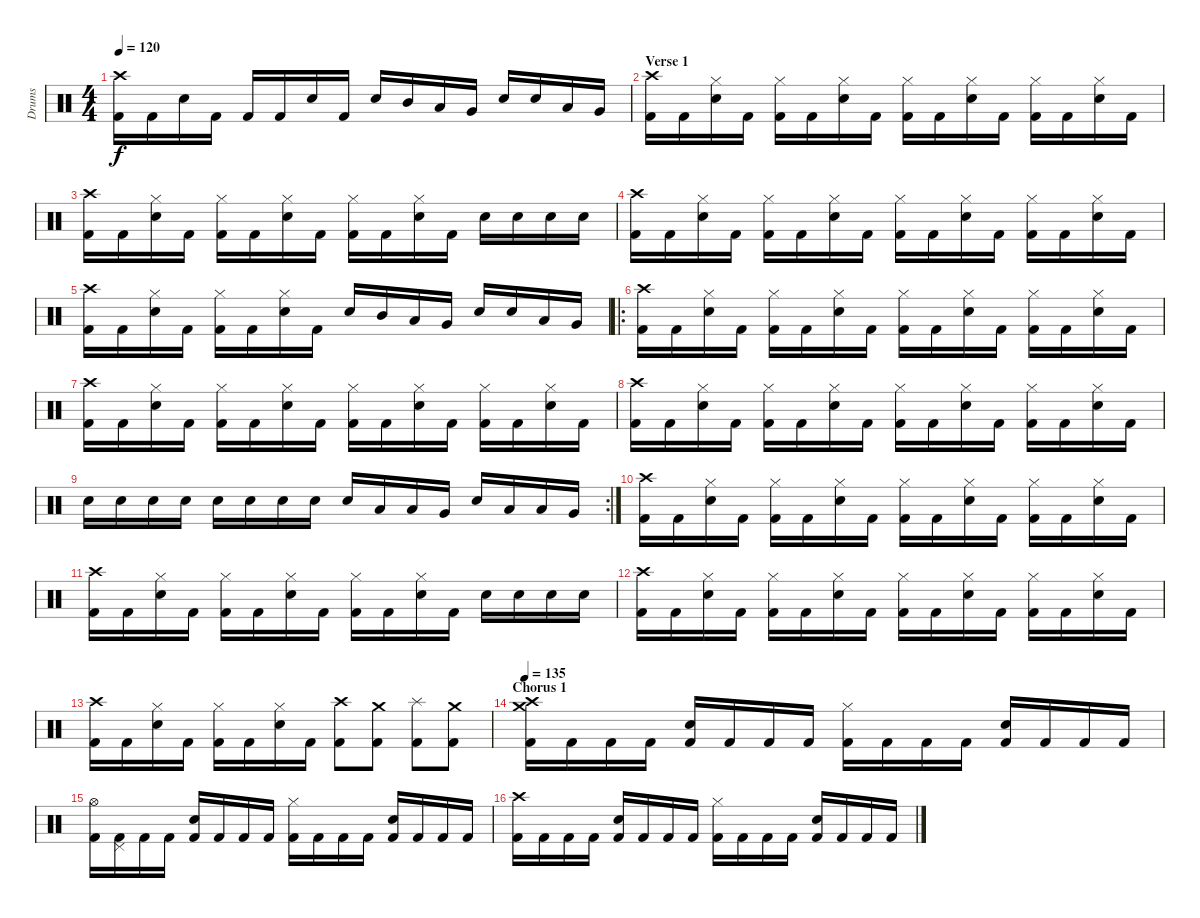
\track ("Drums" "Drums") {instrument percussion}
\staff {score}
\articulation defaults
\ts (4 4)
\tempo 120
\clef neutral
\ks c
("Kick (hit) 2" "Crash high (hit)").16{dy f} "Kick (hit) 2".16 "Electric Snare (hit)".16 "Kick (hit) 2".16 "Kick (hit) 2".16 "Kick (hit) 2".16 "Electric Snare (hit)".16 "Kick (hit) 2".16 "Electric Snare (hit)".16 "Mid Tom (hit)".16 "Low Tom (hit)".16 "Very Low Tom (hit)".16 "Electric Snare (hit)".16 "Electric Snare (hit)".16 "Low Tom (hit)".16 "Very Low Tom (hit)".16 |
\section ("" "Verse 1")
("Kick (hit) 2" "Crash high (hit)").16 "Kick (hit) 2".16 ("Electric Snare (hit)" "Hi-Hat (closed)").16 "Kick (hit) 2".16 ("Kick (hit) 2" "Hi-Hat (closed)").16 "Kick (hit) 2".16 ("Electric Snare (hit)" "Hi-Hat (closed)").16 "Kick (hit) 2".16 ("Kick (hit) 2" "Hi-Hat (closed)").16 "Kick (hit) 2".16 ("Electric Snare (hit)" "Hi-Hat (closed)").16 "Kick (hit) 2".16 ("Kick (hit) 2" "Hi-Hat (closed)").16 "Kick (hit) 2".16 ("Electric Snare (hit)" "Hi-Hat (closed)").16 "Kick (hit) 2".16 |
("Kick (hit) 2" "Crash high (hit)").16 "Kick (hit) 2".16 ("Electric Snare (hit)" "Hi-Hat (closed)").16 "Kick (hit) 2".16 ("Kick (hit) 2" "Hi-Hat (closed)").16 "Kick (hit) 2".16 ("Electric Snare (hit)" "Hi-Hat (closed)").16 "Kick (hit) 2".16 ("Kick (hit) 2" "Hi-Hat (closed)").16 "Kick (hit) 2".16 ("Electric Snare (hit)" "Hi-Hat (closed)").16 "Kick (hit) 2".16 "Electric Snare (hit)".16 "Electric Snare (hit)".16 "Electric Snare (hit)".16 "Electric Snare (hit)".16 |
("Kick (hit) 2" "Crash high (hit)").16 "Kick (hit) 2".16 ("Electric Snare (hit)" "Hi-Hat (closed)").16 "Kick (hit) 2".16 ("Kick (hit) 2" "Hi-Hat (closed)").16 "Kick (hit) 2".16 ("Electric Snare (hit)" "Hi-Hat (closed)").16 "Kick (hit) 2".16 ("Kick (hit) 2" "Hi-Hat (closed)").16 "Kick (hit) 2".16 ("Electric Snare (hit)" "Hi-Hat (closed)").16 "Kick (hit) 2".16 ("Kick (hit) 2" "Hi-Hat (closed)").16 "Kick (hit) 2".16 ("Electric Snare (hit)" "Hi-Hat (closed)").16 "Kick (hit) 2".16 |
("Kick (hit) 2" "Crash high (hit)").16 "Kick (hit) 2".16 ("Electric Snare (hit)" "Hi-Hat (closed)").16 "Kick (hit) 2".16 ("Kick (hit) 2" "Hi-Hat (closed)").16 "Kick (hit) 2".16 ("Electric Snare (hit)" "Hi-Hat (closed)").16 "Kick (hit) 2".16 "Electric Snare (hit)".16 "Mid Tom (hit)".16 "Low Tom (hit)".16 "Very Low Tom (hit)".16 "Electric Snare (hit)".16 "Electric Snare (hit)".16 "Low Tom (hit)".16 "Very Low Tom (hit)".16 |
\ro
("Kick (hit) 2" "Crash high (hit)").16 "Kick (hit) 2".16 ("Electric Snare (hit)" "Hi-Hat (closed)").16 "Kick (hit) 2".16 ("Kick (hit) 2" "Hi-Hat (closed)").16 "Kick (hit) 2".16 ("Electric Snare (hit)" "Hi-Hat (closed)").16 "Kick (hit) 2".16 ("Kick (hit) 2" "Hi-Hat (closed)").16 "Kick (hit) 2".16 ("Electric Snare (hit)" "Hi-Hat (closed)").16 "Kick (hit) 2".16 ("Kick (hit) 2" "Hi-Hat (closed)").16 "Kick (hit) 2".16 ("Electric Snare (hit)" "Hi-Hat (closed)").16 "Kick (hit) 2".16 |
("Kick (hit) 2" "Crash high (hit)").16 "Kick (hit) 2".16 ("Electric Snare (hit)" "Hi-Hat (closed)").16 "Kick (hit) 2".16 ("Kick (hit) 2" "Hi-Hat (closed)").16 "Kick (hit) 2".16 ("Electric Snare (hit)" "Hi-Hat (closed)").16 "Kick (hit) 2".16 ("Kick (hit) 2" "Hi-Hat (closed)").16 "Kick (hit) 2".16 ("Electric Snare (hit)" "Hi-Hat (closed)").16 "Kick (hit) 2".16 ("Kick (hit) 2" "Hi-Hat (closed)").16 "Kick (hit) 2".16 ("Electric Snare (hit)" "Hi-Hat (closed)").16 "Kick (hit) 2".16 |
("Kick (hit) 2" "Crash high (hit)").16 "Kick (hit) 2".16 ("Electric Snare (hit)" "Hi-Hat (closed)").16 "Kick (hit) 2".16 ("Kick (hit) 2" "Hi-Hat (closed)").16 "Kick (hit) 2".16 ("Electric Snare (hit)" "Hi-Hat (closed)").16 "Kick (hit) 2".16 ("Kick (hit) 2" "Hi-Hat (closed)").16 "Kick (hit) 2".16 ("Electric Snare (hit)" "Hi-Hat (closed)").16 "Kick (hit) 2".16 ("Kick (hit) 2" "Hi-Hat (closed)").16 "Kick (hit) 2".16 ("Electric Snare (hit)" "Hi-Hat (closed)").16 "Kick (hit) 2".16 |
\rc 2 "Electric Snare (hit)".16 "Electric Snare (hit)".16 "Electric Snare (hit)".16 "Electric Snare (hit)".16 "Electric Snare (hit)".16 "Electric Snare (hit)".16 "Electric Snare (hit)".16 "Electric Snare (hit)".16 "Electric Snare (hit)".16 "Low Tom (hit)".16 "Low Tom (hit)".16 "Very Low Tom (hit)".16 "Electric Snare (hit)".16 "Low Tom (hit)".16 "Low Tom (hit)".16 "Very Low Tom (hit)".16
|
("Kick (hit) 2" "Crash high (hit)").16 "Kick (hit) 2".16 ("Electric Snare (hit)" "Hi-Hat (closed)").16 "Kick (hit) 2".16 ("Kick (hit) 2" "Hi-Hat (closed)").16 "Kick (hit) 2".16 ("Electric Snare (hit)" "Hi-Hat (closed)").16 "Kick (hit) 2".16 ("Kick (hit) 2" "Hi-Hat (closed)").16 "Kick (hit) 2".16 ("Electric Snare (hit)" "Hi-Hat (closed)").16 "Kick (hit) 2".16 ("Kick (hit) 2" "Hi-Hat (closed)").16 "Kick (hit) 2".16 ("Electric Snare (hit)" "Hi-Hat (closed)").16 "Kick (hit) 2".16 |
("Kick (hit) 2" "Crash high (hit)").16 "Kick (hit) 2".16 ("Electric Snare (hit)" "Hi-Hat (closed)").16 "Kick (hit) 2".16 ("Kick (hit) 2" "Hi-Hat (closed)").16 "Kick (hit) 2".16 ("Electric Snare (hit)" "Hi-Hat (closed)").16 "Kick (hit) 2".16 ("Kick (hit) 2" "Hi-Hat (closed)").16 "Kick (hit) 2".16 ("Electric Snare (hit)" "Hi-Hat (closed)").16 "Kick (hit) 2".16 "Electric Snare (hit)".16 "Electric Snare (hit)".16 "Electric Snare (hit)".16 "Electric Snare (hit)".16 |
("Kick (hit) 2" "Crash high (hit)").16 "Kick (hit) 2".16 ("Electric Snare (hit)" "Hi-Hat (closed)").16 "Kick (hit) 2".16 ("Kick (hit) 2" "Hi-Hat (closed)").16 "Kick (hit) 2".16 ("Electric Snare (hit)" "Hi-Hat (closed)").16 "Kick (hit) 2".16 ("Kick (hit) 2" "Hi-Hat (closed)").16 "Kick (hit) 2".16 ("Electric Snare (hit)" "Hi-Hat (closed)").16 "Kick (hit) 2".16 ("Kick (hit) 2" "Hi-Hat (closed)").16 "Kick (hit) 2".16 ("Electric Snare (hit)" "Hi-Hat (closed)").16 "Kick (hit) 2".16 |
("Kick (hit) 2" "Crash high (hit)").16 "Kick (hit) 2".16 ("Electric Snare (hit)" "Hi-Hat (closed)").16 "Kick (hit) 2".16 ("Kick (hit) 2" "Hi-Hat (closed)").16 "Kick (hit) 2".16 ("Electric Snare (hit)" "Hi-Hat (closed)").16 "Kick (hit) 2".16 ("Kick (hit) 2" "Crash high (hit)").8 ("Kick (hit) 2" "Crash medium (hit)").8 ("Kick (hit) 2" "Splash (hit)").8 ("Kick (hit) 2" "Crash medium (hit)").8 |
\section ("" "Chorus 1")
\tempo 135
("Kick (hit) 2" "Crash high (hit)" "Crash medium (hit)").16 "Kick (hit) 2".16 "Kick (hit) 2".16 "Kick (hit) 2".16 ("Kick (hit) 2" "Electric Snare (hit)").16 "Kick (hit) 2".16 "Kick (hit) 2".16 "Kick (hit) 2".16 ("Kick (hit) 2" "Hi-Hat (closed)").16 "Kick (hit) 2".16 "Kick (hit) 2".16 "Kick (hit) 2".16 ("Kick (hit) 2" "Electric Snare (hit)").16 "Kick (hit) 2".16 "Kick (hit) 2".16 "Kick (hit) 2".16 |
("Kick (hit) 2" "Hi-Hat (open)").16 ("Kick (hit) 2" "Pedal Hi-Hat (hit)").16 "Kick (hit) 2".16 "Kick (hit) 2".16 ("Kick (hit) 2" "Electric Snare (hit)").16 "Kick (hit) 2".16 "Kick (hit) 2".16 "Kick (hit) 2".16 ("Kick (hit) 2" "Hi-Hat (closed)").16 "Kick (hit) 2".16 "Kick (hit) 2".16 "Kick (hit) 2".16 ("Kick (hit) 2" "Electric Snare (hit)").16 "Kick (hit) 2".16 "Kick (hit) 2".16 "Kick (hit) 2".16 |
("Kick (hit) 2" "Crash high (hit)").16 "Kick (hit) 2".16 "Kick (hit) 2".16 "Kick (hit) 2".16 ("Kick (hit) 2" "Electric Snare (hit)").16 "Kick (hit) 2".16 "Kick (hit) 2".16 "Kick (hit) 2".16 ("Kick (hit) 2" "Hi-Hat (closed)").16 "Kick (hit) 2".16 "Kick (hit) 2".16 "Kick (hit) 2".16 ("Kick (hit) 2" "Electric Snare (hit)").16 "Kick (hit) 2".16 "Kick (hit) 2".16 "Kick (hit) 2".16
